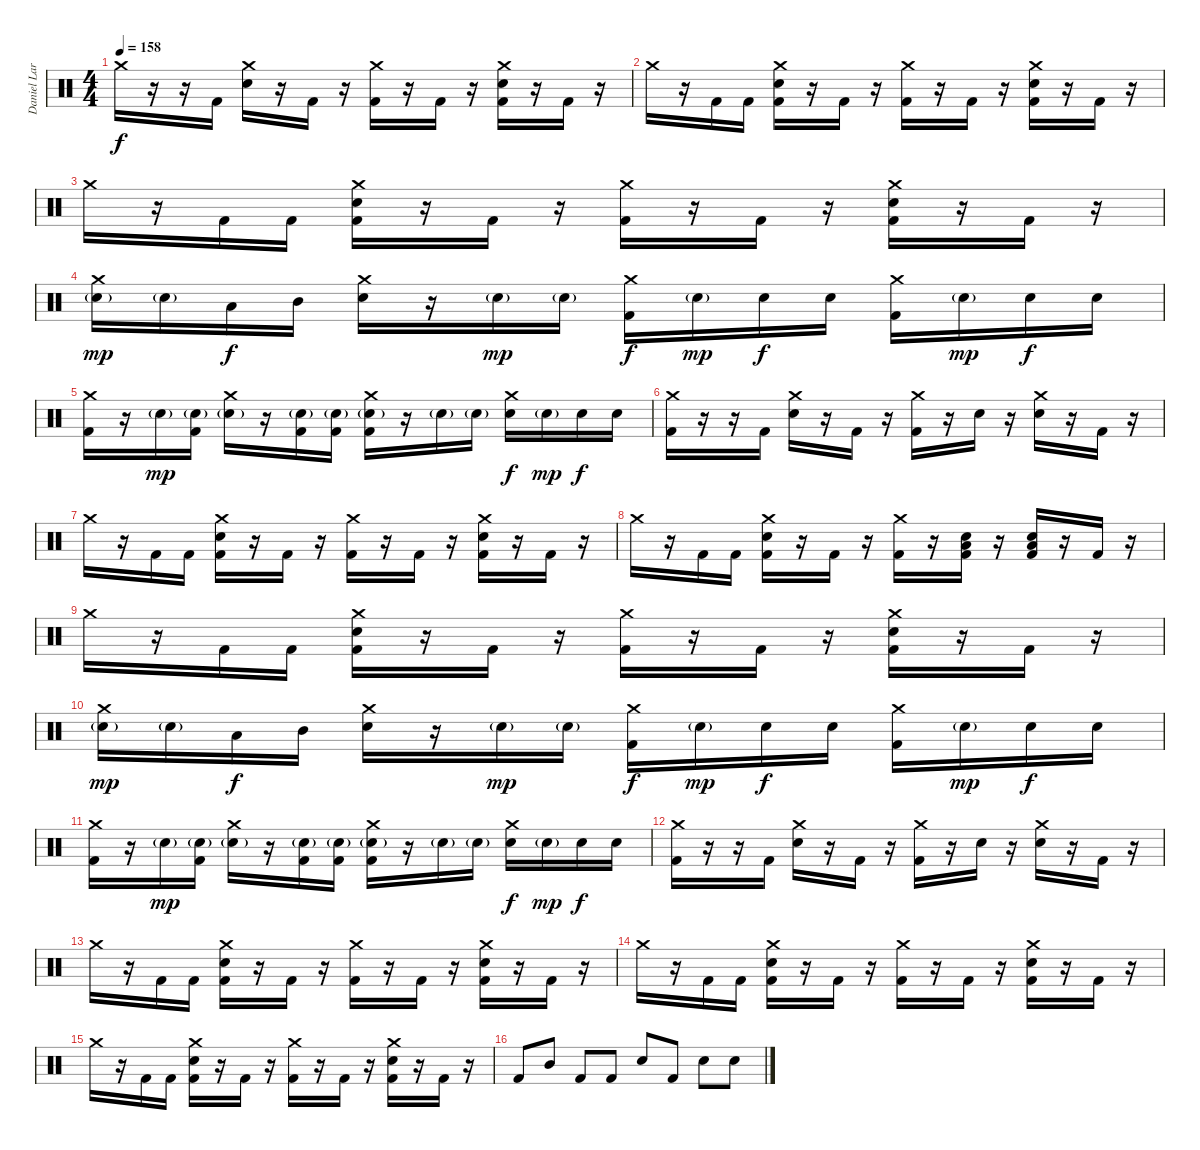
\track ("Daniel Larsen" "Daniel Lar") {instrument percussion}
\staff {score}
\articulation defaults
\ts (4 4)
\tempo 158
\clef neutral
\ks c "Crash medium (hit)".16{dy f}
r.16 r.16 "Kick (hit) 2".16 ("Crash medium (hit)" "Electric Snare (hit)").16 r.16 "Kick (hit) 2".16 r.16 ("Crash medium (hit)" "Kick (hit) 2").16 r.16 "Kick (hit) 2".16 r.16 ("Crash medium (hit)" "Electric Snare (hit)" "Kick (hit) 2").16 r.16 "Kick (hit) 2".16 r.16 |
"Crash medium (hit)".16 r.16 "Kick (hit) 2".16 "Kick (hit) 2".16 ("Crash medium (hit)" "Electric Snare (hit)" "Kick (hit) 2").16 r.16 "Kick (hit) 2".16 r.16 ("Crash medium (hit)" "Kick (hit) 2").16 r.16 "Kick (hit) 2".16 r.16 ("Crash medium (hit)" "Electric Snare (hit)" "Kick (hit) 2").16 r.16 "Kick (hit) 2".16 r.16 |
"Crash medium (hit)".16 r.16 "Kick (hit) 2".16 "Kick (hit) 2".16 ("Crash medium (hit)" "Electric Snare (hit)" "Kick (hit) 2").16 r.16 "Kick (hit) 2".16 r.16 ("Crash medium (hit)" "Kick (hit) 2").16 r.16 "Kick (hit) 2".16 r.16 ("Crash medium (hit)" "Electric Snare (hit)" "Kick (hit) 2").16 r.16 "Kick (hit) 2".16 r.16 |
("Crash medium (hit)" "Electric Snare (hit)"{g}).16{dy mp} "Electric Snare (hit)"{g}.16 "Low Tom (hit)".16{dy f} "Mid Tom (hit)".16 ("Crash medium (hit)" "Electric Snare (hit)").16 r.16 "Electric Snare (hit)"{g}.16{dy mp} "Electric Snare (hit)"{g}.16 ("Crash medium (hit)" "Kick (hit) 2").16{dy f} "Electric Snare (hit)"{g}.16{dy mp} "Electric Snare (hit)".16{dy f} "Electric Snare (hit)".16 ("Crash medium (hit)" "Kick (hit) 2").16 "Electric Snare (hit)"{g}.16{dy mp} "Electric Snare (hit)".16{dy f} "Electric Snare (hit)".16 |
("Crash medium (hit)" "Kick (hit) 2").16 r.16 "Electric Snare (hit)"{g}.16{dy mp} ("Electric Snare (hit)"{g} "Kick (hit) 2").16 ("Crash medium (hit)" "Electric Snare (hit)"{g}).16 r.16 ("Electric Snare (hit)"{g} "Kick (hit) 2").16 ("Electric Snare (hit)"{g} "Kick (hit) 2").16 ("Crash medium (hit)" "Electric Snare (hit)"{g} "Kick (hit) 2").16 r.16 "Electric Snare (hit)"{g}.16 "Electric Snare (hit)"{g}.16 ("Crash medium (hit)" "Electric Snare (hit)").16{dy f} "Electric Snare (hit)"{g}.16{dy mp} "Electric Snare (hit)".16{dy f} "Electric Snare (hit)".16 |
("Crash medium (hit)" "Kick (hit) 2").16 r.16 r.16 "Kick (hit) 2".16 ("Crash medium (hit)" "Electric Snare (hit)").16 r.16 "Kick (hit) 2".16 r.16 ("Crash medium (hit)" "Kick (hit) 2").16 r.16 "Electric Snare (hit)".16 r.16 ("Crash medium (hit)" "Electric Snare (hit)").16 r.16 "Kick (hit) 2".16 r.16 |
"Crash medium (hit)".16 r.16 "Kick (hit) 2".16 "Kick (hit) 2".16 ("Crash medium (hit)" "Electric Snare (hit)" "Kick (hit) 2").16 r.16 "Kick (hit) 2".16 r.16 ("Crash medium (hit)" "Kick (hit) 2").16 r.16 "Kick (hit) 2".16 r.16 ("Crash medium (hit)" "Electric Snare (hit)" "Kick (hit) 2").16 r.16 "Kick (hit) 2".16 r.16 |
"Crash medium (hit)".16 r.16 "Kick (hit) 2".16 "Kick (hit) 2".16 ("Crash medium (hit)" "Electric Snare (hit)" "Kick (hit) 2").16 r.16 "Kick (hit) 2".16 r.16 ("Crash medium (hit)" "Kick (hit) 2").16 r.16 ("Low Tom (hit)" "Electric Snare (hit)" "Kick (hit) 2").16 r.16 ("Low Tom (hit)" "Electric Snare (hit)" "Kick (hit) 2").16 r.16 "Kick (hit) 2".16 r.16 |
"Crash medium (hit)".16 r.16 "Kick (hit) 2".16 "Kick (hit) 2".16 ("Crash medium (hit)" "Electric Snare (hit)" "Kick (hit) 2").16 r.16 "Kick (hit) 2".16 r.16 ("Crash medium (hit)" "Kick (hit) 2").16 r.16 "Kick (hit) 2".16 r.16 ("Crash medium (hit)" "Electric Snare (hit)" "Kick (hit) 2").16 r.16 "Kick (hit) 2".16 r.16 |
("Crash medium (hit)" "Electric Snare (hit)"{g}).16{dy mp} "Electric Snare (hit)"{g}.16 "Low Tom (hit)".16{dy f} "Mid Tom (hit)".16 ("Crash medium (hit)" "Electric Snare (hit)").16 r.16 "Electric Snare (hit)"{g}.16{dy mp} "Electric Snare (hit)"{g}.16 ("Crash medium (hit)" "Kick (hit) 2").16{dy f} "Electric Snare (hit)"{g}.16{dy mp} "Electric Snare (hit)".16{dy f} "Electric Snare (hit)".16 ("Crash medium (hit)" "Kick (hit) 2").16 "Electric Snare (hit)"{g}.16{dy mp} "Electric Snare (hit)".16{dy f} "Electric Snare (hit)".16 |
("Crash medium (hit)" "Kick (hit) 2").16 r.16 "Electric Snare (hit)"{g}.16{dy mp} ("Electric Snare (hit)"{g} "Kick (hit) 2").16 ("Crash medium (hit)" "Electric Snare (hit)"{g}).16 r.16 ("Electric Snare (hit)"{g} "Kick (hit) 2").16 ("Electric Snare (hit)"{g} "Kick (hit) 2").16 ("Crash medium (hit)" "Electric Snare (hit)"{g} "Kick (hit) 2").16 r.16 "Electric Snare (hit)"{g}.16 "Electric Snare (hit)"{g}.16 ("Crash medium (hit)" "Electric Snare (hit)").16{dy f} "Electric Snare (hit)"{g}.16{dy mp} "Electric Snare (hit)".16{dy f} "Electric Snare (hit)".16 |
("Crash medium (hit)" "Kick (hit) 2").16 r.16 r.16 "Kick (hit) 2".16 ("Crash medium (hit)" "Electric Snare (hit)").16 r.16 "Kick (hit) 2".16 r.16 ("Crash medium (hit)" "Kick (hit) 2").16 r.16 "Electric Snare (hit)".16 r.16 ("Crash medium (hit)" "Electric Snare (hit)").16 r.16 "Kick (hit) 2".16 r.16 |
"Crash medium (hit)".16 r.16 "Kick (hit) 2".16 "Kick (hit) 2".16 ("Crash medium (hit)" "Electric Snare (hit)" "Kick (hit) 2").16 r.16 "Kick (hit) 2".16 r.16 ("Crash medium (hit)" "Kick (hit) 2").16 r.16 "Kick (hit) 2".16 r.16 ("Crash medium (hit)" "Electric Snare (hit)" "Kick (hit) 2").16 r.16 "Kick (hit) 2".16 r.16 |
"Crash medium (hit)".16 r.16 "Kick (hit) 2".16 "Kick (hit) 2".16 ("Crash medium (hit)" "Electric Snare (hit)" "Kick (hit) 2").16 r.16 "Kick (hit) 2".16 r.16 ("Crash medium (hit)" "Kick (hit) 2").16 r.16 "Kick (hit) 2".16 r.16 ("Crash medium (hit)" "Electric Snare (hit)" "Kick (hit) 2").16 r.16 "Kick (hit) 2".16 r.16 |
"Crash medium (hit)".16 r.16 "Kick (hit) 2".16 "Kick (hit) 2".16 ("Crash medium (hit)" "Electric Snare (hit)" "Kick (hit) 2").16 r.16 "Kick (hit) 2".16 r.16 ("Crash medium (hit)" "Kick (hit) 2").16 r.16 "Kick (hit) 2".16 r.16 ("Crash medium (hit)" "Electric Snare (hit)" "Kick (hit) 2").16 r.16 "Kick (hit) 2".16 r.16 |
"Kick (hit) 2".8 "Mid Tom (hit)".8 "Kick (hit) 2".8 "Kick (hit) 2".8 "Electric Snare (hit)".8 "Kick (hit) 2".8 "Electric Snare (hit)".8 "Electric Snare (hit)".8
